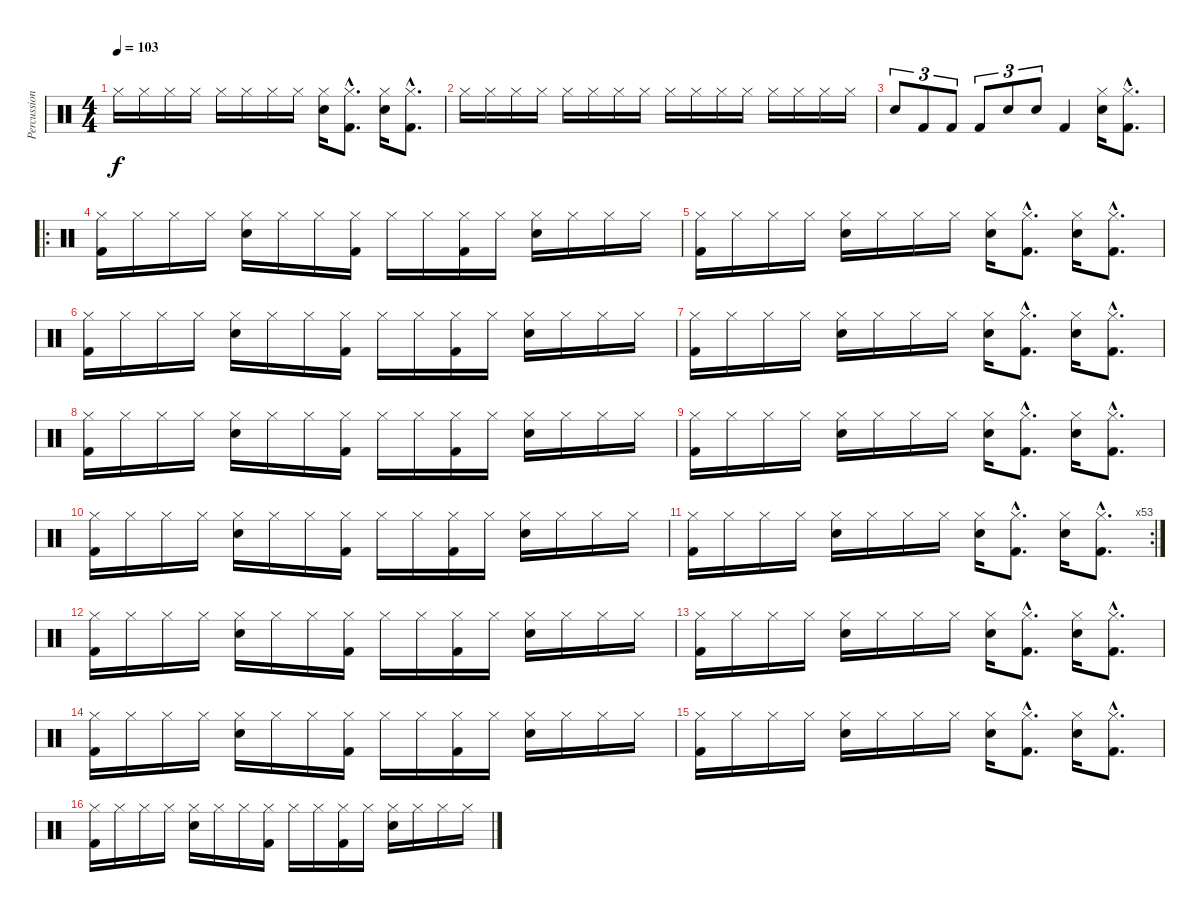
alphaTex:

\track ("Percussions" "Percussion") {instrument percussion}
\staff {score}
\articulation defaults
\ts (4 4)
\tempo 103
\clef neutral
\ks c "Hi-Hat (closed)".16{dy f} "Hi-Hat (closed)".16 "Hi-Hat (closed)".16 "Hi-Hat (closed)".16 "Hi-Hat (closed)".16 "Hi-Hat (closed)".16 "Hi-Hat (closed)".16 "Hi-Hat (closed)".16
("Hi-Hat (closed)" "Snare (hit) 2").16 ("Hi-Hat (closed)"{hac} "Kick (hit) 2"{hac}).8{d} ("Hi-Hat (closed)" "Snare (hit) 2").16 ("Hi-Hat (closed)"{hac} "Kick (hit) 2"{hac}).8{d} |
"Hi-Hat (closed)".16 "Hi-Hat (closed)".16 "Hi-Hat (closed)".16 "Hi-Hat (closed)".16 "Hi-Hat (closed)".16 "Hi-Hat (closed)".16 "Hi-Hat (closed)".16 "Hi-Hat (closed)".16 "Hi-Hat (closed)".16 "Hi-Hat (closed)".16 "Hi-Hat (closed)".16 "Hi-Hat (closed)".16 "Hi-Hat (closed)".16 "Hi-Hat (closed)".16 "Hi-Hat (closed)".16 "Hi-Hat (closed)".16 |
"Snare (hit)".8{tu (3 2)} "Kick (hit) 2".8{tu (3 2)} "Kick (hit) 2".8{tu (3 2)} "Kick (hit) 2".8{tu (3 2)} "Snare (hit) 2".8{tu (3 2)} "Snare (hit) 2".8{tu (3 2)} "Kick (hit) 2".4 ("Hi-Hat (closed)" "Snare (hit) 2").16 ("Hi-Hat (closed)"{hac} "Kick (hit) 2"{hac}).8{d} |
\ro
("Hi-Hat (closed)" "Kick (hit) 2").16 "Hi-Hat (closed)".16 "Hi-Hat (closed)".16 "Hi-Hat (closed)".16 ("Hi-Hat (closed)" "Snare (hit) 2").16 "Hi-Hat (closed)".16 "Hi-Hat (closed)".16 ("Hi-Hat (closed)" "Kick (hit) 2").16 "Hi-Hat (closed)".16 "Hi-Hat (closed)".16 ("Hi-Hat (closed)" "Kick (hit) 2").16 "Hi-Hat (closed)".16 ("Hi-Hat (closed)" "Snare (hit) 2").16 "Hi-Hat (closed)".16 "Hi-Hat (closed)".16 "Hi-Hat (closed)".16 |
("Hi-Hat (closed)" "Kick (hit) 2").16 "Hi-Hat (closed)".16 "Hi-Hat (closed)".16 "Hi-Hat (closed)".16 ("Hi-Hat (closed)" "Snare (hit) 2").16 "Hi-Hat (closed)".16 "Hi-Hat (closed)".16 "Hi-Hat (closed)".16 ("Hi-Hat (closed)" "Snare (hit) 2").16 ("Hi-Hat (closed)"{hac} "Kick (hit) 2"{hac}).8{d} ("Hi-Hat (closed)" "Snare (hit) 2").16 ("Hi-Hat (closed)"{hac} "Kick (hit) 2"{hac}).8{d} |
("Hi-Hat (closed)" "Kick (hit) 2").16 "Hi-Hat (closed)".16 "Hi-Hat (closed)".16 "Hi-Hat (closed)".16 ("Hi-Hat (closed)" "Snare (hit) 2").16 "Hi-Hat (closed)".16 "Hi-Hat (closed)".16 ("Hi-Hat (closed)" "Kick (hit) 2").16 "Hi-Hat (closed)".16 "Hi-Hat (closed)".16 ("Hi-Hat (closed)" "Kick (hit) 2").16 "Hi-Hat (closed)".16 ("Hi-Hat (closed)" "Snare (hit) 2").16 "Hi-Hat (closed)".16 "Hi-Hat (closed)".16 "Hi-Hat (closed)".16 |
("Hi-Hat (closed)" "Kick (hit) 2").16 "Hi-Hat (closed)".16 "Hi-Hat (closed)".16 "Hi-Hat (closed)".16 ("Hi-Hat (closed)" "Snare (hit) 2").16 "Hi-Hat (closed)".16 "Hi-Hat (closed)".16 "Hi-Hat (closed)".16 ("Hi-Hat (closed)" "Snare (hit) 2").16 ("Hi-Hat (closed)"{hac} "Kick (hit) 2"{hac}).8{d} ("Hi-Hat (closed)" "Snare (hit) 2").16 ("Hi-Hat (closed)"{hac} "Kick (hit) 2"{hac}).8{d} |
("Hi-Hat (closed)" "Kick (hit) 2").16 "Hi-Hat (closed)".16 "Hi-Hat (closed)".16 "Hi-Hat (closed)".16 ("Hi-Hat (closed)" "Snare (hit) 2").16 "Hi-Hat (closed)".16 "Hi-Hat (closed)".16 ("Hi-Hat (closed)" "Kick (hit) 2").16 "Hi-Hat (closed)".16 "Hi-Hat (closed)".16 ("Hi-Hat (closed)" "Kick (hit) 2").16 "Hi-Hat (closed)".16 ("Hi-Hat (closed)" "Snare (hit) 2").16 "Hi-Hat (closed)".16 "Hi-Hat (closed)".16 "Hi-Hat (closed)".16 |
("Hi-Hat (closed)" "Kick (hit) 2").16 "Hi-Hat (closed)".16 "Hi-Hat (closed)".16 "Hi-Hat (closed)".16 ("Hi-Hat (closed)" "Snare (hit) 2").16 "Hi-Hat (closed)".16 "Hi-Hat (closed)".16 "Hi-Hat (closed)".16 ("Hi-Hat (closed)" "Snare (hit) 2").16 ("Hi-Hat (closed)"{hac} "Kick (hit) 2"{hac}).8{d} ("Hi-Hat (closed)" "Snare (hit) 2").16 ("Hi-Hat (closed)"{hac} "Kick (hit) 2"{hac}).8{d} |
("Hi-Hat (closed)" "Kick (hit) 2").16 "Hi-Hat (closed)".16 "Hi-Hat (closed)".16 "Hi-Hat (closed)".16 ("Hi-Hat (closed)" "Snare (hit) 2").16 "Hi-Hat (closed)".16 "Hi-Hat (closed)".16 ("Hi-Hat (closed)" "Kick (hit) 2").16 "Hi-Hat (closed)".16 "Hi-Hat (closed)".16 ("Hi-Hat (closed)" "Kick (hit) 2").16 "Hi-Hat (closed)".16 ("Hi-Hat (closed)" "Snare (hit) 2").16 "Hi-Hat (closed)".16 "Hi-Hat (closed)".16 "Hi-Hat (closed)".16 |
\rc 53
("Hi-Hat (closed)" "Kick (hit) 2").16 "Hi-Hat (closed)".16 "Hi-Hat (closed)".16 "Hi-Hat (closed)".16 ("Hi-Hat (closed)" "Snare (hit) 2").16 "Hi-Hat (closed)".16 "Hi-Hat (closed)".16 "Hi-Hat (closed)".16 ("Hi-Hat (closed)" "Snare (hit) 2").16 ("Hi-Hat (closed)"{hac} "Kick (hit) 2"{hac}).8{d} ("Hi-Hat (closed)" "Snare (hit) 2").16 ("Hi-Hat (closed)"{hac} "Kick (hit) 2"{hac}).8{d} |
("Hi-Hat (closed)" "Kick (hit) 2").16 "Hi-Hat (closed)".16 "Hi-Hat (closed)".16 "Hi-Hat (closed)".16 ("Hi-Hat (closed)" "Snare (hit) 2").16 "Hi-Hat (closed)".16 "Hi-Hat (closed)".16 ("Hi-Hat (closed)" "Kick (hit) 2").16 "Hi-Hat (closed)".16 "Hi-Hat (closed)".16 ("Hi-Hat (closed)" "Kick (hit) 2").16 "Hi-Hat (closed)".16 ("Hi-Hat (closed)" "Snare (hit) 2").16 "Hi-Hat (closed)".16 "Hi-Hat (closed)".16 "Hi-Hat (closed)".16 |
("Hi-Hat (closed)" "Kick (hit) 2").16 "Hi-Hat (closed)".16 "Hi-Hat (closed)".16 "Hi-Hat (closed)".16 ("Hi-Hat (closed)" "Snare (hit) 2").16 "Hi-Hat (closed)".16 "Hi-Hat (closed)".16 "Hi-Hat (closed)".16 ("Hi-Hat (closed)" "Snare (hit) 2").16 ("Hi-Hat (closed)"{hac} "Kick (hit) 2"{hac}).8{d} ("Hi-Hat (closed)" "Snare (hit) 2").16 ("Hi-Hat (closed)"{hac} "Kick (hit) 2"{hac}).8{d} |
("Hi-Hat (closed)" "Kick (hit) 2").16 "Hi-Hat (closed)".16 "Hi-Hat (closed)".16 "Hi-Hat (closed)".16 ("Hi-Hat (closed)" "Snare (hit) 2").16 "Hi-Hat (closed)".16 "Hi-Hat (closed)".16 ("Hi-Hat (closed)" "Kick (hit) 2").16 "Hi-Hat (closed)".16 "Hi-Hat (closed)".16 ("Hi-Hat (closed)" "Kick (hit) 2").16 "Hi-Hat (closed)".16 ("Hi-Hat (closed)" "Snare (hit) 2").16 "Hi-Hat (closed)".16 "Hi-Hat (closed)".16 "Hi-Hat (closed)".16 |
("Hi-Hat (closed)" "Kick (hit) 2").16 "Hi-Hat (closed)".16 "Hi-Hat (closed)".16 "Hi-Hat (closed)".16 ("Hi-Hat (closed)" "Snare (hit) 2").16 "Hi-Hat (closed)".16 "Hi-Hat (closed)".16 "Hi-Hat (closed)".16 ("Hi-Hat (closed)" "Snare (hit) 2").16 ("Hi-Hat (closed)"{hac} "Kick (hit) 2"{hac}).8{d} ("Hi-Hat (closed)" "Snare (hit) 2").16 ("Hi-Hat (closed)"{hac} "Kick (hit) 2"{hac}).8{d} |
("Hi-Hat (closed)" "Kick (hit) 2").16 "Hi-Hat (closed)".16 "Hi-Hat (closed)".16 "Hi-Hat (closed)".16 ("Hi-Hat (closed)" "Snare (hit) 2").16 "Hi-Hat (closed)".16 "Hi-Hat (closed)".16 ("Hi-Hat (closed)" "Kick (hit) 2").16 "Hi-Hat (closed)".16 "Hi-Hat (closed)".16 ("Hi-Hat (closed)" "Kick (hit) 2").16 "Hi-Hat (closed)".16 ("Hi-Hat (closed)" "Snare (hit) 2").16 "Hi-Hat (closed)".16 "Hi-Hat (closed)".16 "Hi-Hat (closed)".16
